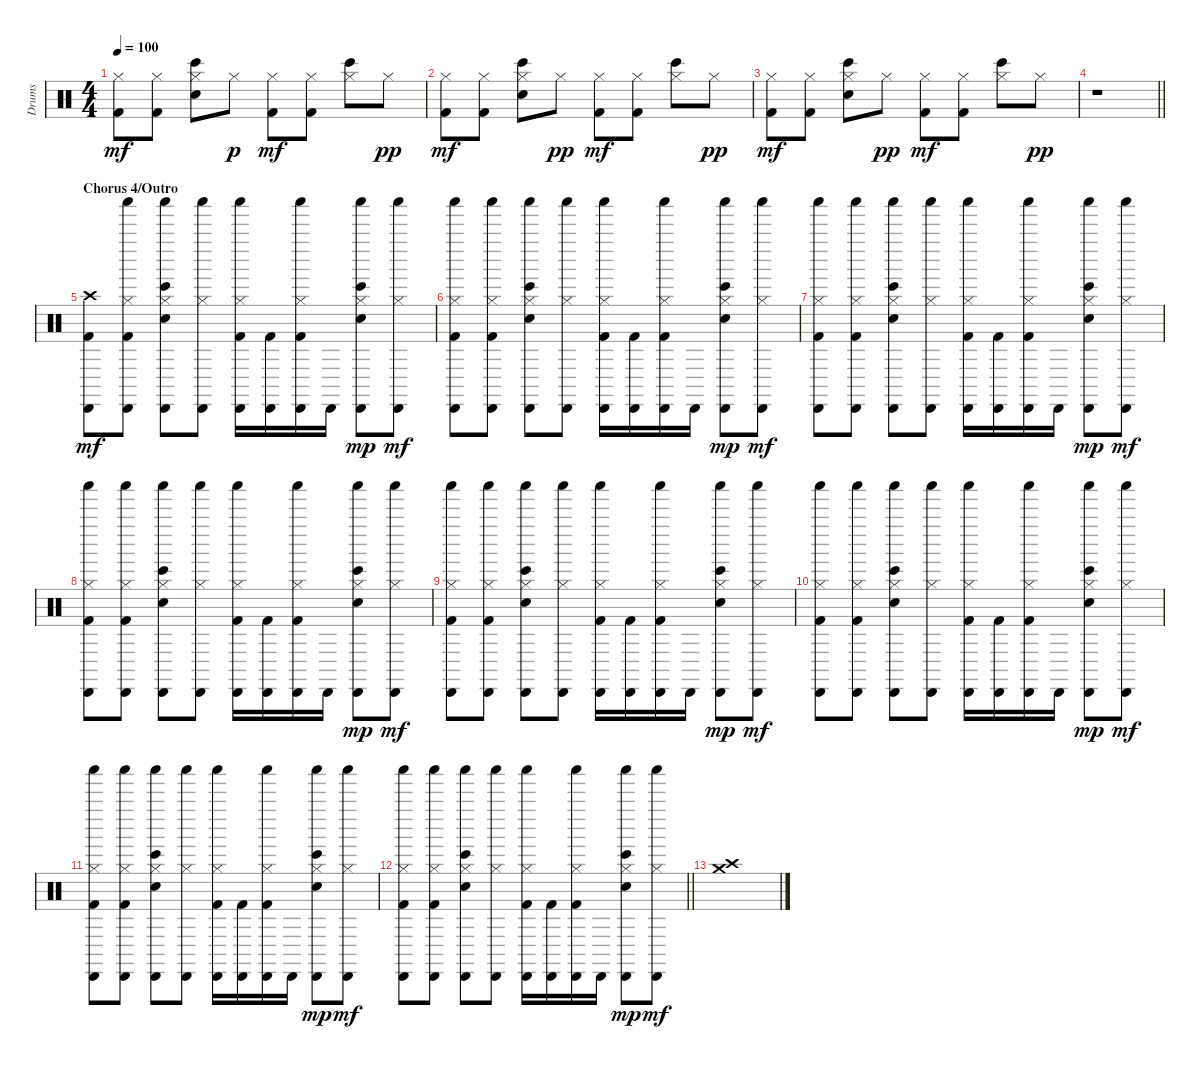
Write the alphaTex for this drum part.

\track ("Drums" "Drums") {instrument percussion}
\staff {score}
\articulation defaults
\ts (4 4)
\tempo 100
\clef neutral
\ks c
("Hi-Hat (closed)" "Kick (hit) 2").8{dy mf} ("Hi-Hat (closed)" "Kick (hit) 2").8 ("Hi-Hat (closed)" "Bongo High (hit)" "Snare (hit) 2").8 "Hi-Hat (closed)".8{dy p} ("Hi-Hat (closed)" "Kick (hit) 2").8{dy mf} ("Hi-Hat (closed)" "Kick (hit) 2").8 ("Hi-Hat (closed)" "Bongo High (hit)").8 "Hi-Hat (closed)".8{dy pp} |
("Hi-Hat (closed)" "Kick (hit) 2").8{dy mf} ("Hi-Hat (closed)" "Kick (hit) 2").8 ("Hi-Hat (closed)" "Bongo High (hit)" "Snare (hit) 2").8 "Hi-Hat (closed)".8{dy pp} ("Hi-Hat (closed)" "Kick (hit) 2").8{dy mf} ("Hi-Hat (closed)" "Kick (hit) 2").8 ("Hi-Hat (closed)" "Bongo High (hit)").8 "Hi-Hat (closed)".8{dy pp} |
("Hi-Hat (closed)" "Kick (hit) 2").8{dy mf} ("Hi-Hat (closed)" "Kick (hit) 2").8 ("Hi-Hat (closed)" "Bongo High (hit)" "Snare (hit) 2").8 "Hi-Hat (closed)".8{dy pp} ("Hi-Hat (closed)" "Kick (hit) 2").8{dy mf} ("Hi-Hat (closed)" "Kick (hit) 2").8 ("Hi-Hat (closed)" "Bongo High (hit)").8 "Hi-Hat (closed)".8{dy pp} |
\barLineRight lightlight
r.1 |
\section ("" "Chorus 4/Outro")
("Crash high (hit)" "Cabasa (hit)" "Kick (hit) 2").8{dy mf} ("Shaker (hit)" "Hi-Hat (closed)" "Cabasa (hit)" "Kick (hit) 2").8 ("Shaker (hit)" "Hi-Hat (closed)" "Cabasa (hit)" "Bongo High (hit)" "Snare (hit) 2").8 ("Shaker (hit)" "Hi-Hat (closed)" "Cabasa (hit)").8 ("Shaker (hit)" "Hi-Hat (closed)" "Cabasa (hit)" "Kick (hit) 2").16 ("Cabasa (hit)" "Kick (hit) 2").16 ("Shaker (hit)" "Hi-Hat (closed)" "Cabasa (hit)" "Kick (hit) 2").16 "Cabasa (hit)".16 ("Shaker (hit)" "Hi-Hat (closed)" "Cabasa (hit)" "Bongo High (hit)" "Snare (hit) 2").8{dy mp} ("Shaker (hit)" "Hi-Hat (closed)" "Cabasa (hit)").8{dy mf} |
("Shaker (hit)" "Hi-Hat (closed)" "Cabasa (hit)" "Kick (hit) 2").8 ("Shaker (hit)" "Hi-Hat (closed)" "Cabasa (hit)" "Kick (hit) 2").8 ("Shaker (hit)" "Hi-Hat (closed)" "Cabasa (hit)" "Bongo High (hit)" "Snare (hit) 2").8 ("Shaker (hit)" "Hi-Hat (closed)" "Cabasa (hit)").8 ("Shaker (hit)" "Hi-Hat (closed)" "Cabasa (hit)" "Kick (hit) 2").16 ("Cabasa (hit)" "Kick (hit) 2").16 ("Shaker (hit)" "Hi-Hat (closed)" "Cabasa (hit)" "Kick (hit) 2").16 "Cabasa (hit)".16 ("Shaker (hit)" "Hi-Hat (closed)" "Cabasa (hit)" "Bongo High (hit)" "Snare (hit) 2").8{dy mp} ("Shaker (hit)" "Hi-Hat (closed)" "Cabasa (hit)").8{dy mf} |
("Shaker (hit)" "Hi-Hat (closed)" "Cabasa (hit)" "Kick (hit) 2").8 ("Shaker (hit)" "Hi-Hat (closed)" "Cabasa (hit)" "Kick (hit) 2").8 ("Shaker (hit)" "Hi-Hat (closed)" "Cabasa (hit)" "Bongo High (hit)" "Snare (hit) 2").8 ("Shaker (hit)" "Hi-Hat (closed)" "Cabasa (hit)").8 ("Shaker (hit)" "Hi-Hat (closed)" "Cabasa (hit)" "Kick (hit) 2").16 ("Cabasa (hit)" "Kick (hit) 2").16 ("Shaker (hit)" "Hi-Hat (closed)" "Cabasa (hit)" "Kick (hit) 2").16 "Cabasa (hit)".16 ("Shaker (hit)" "Hi-Hat (closed)" "Cabasa (hit)" "Bongo High (hit)" "Snare (hit) 2").8{dy mp} ("Shaker (hit)" "Hi-Hat (closed)" "Cabasa (hit)").8{dy mf} |
("Shaker (hit)" "Hi-Hat (closed)" "Cabasa (hit)" "Kick (hit) 2").8 ("Shaker (hit)" "Hi-Hat (closed)" "Cabasa (hit)" "Kick (hit) 2").8 ("Shaker (hit)" "Hi-Hat (closed)" "Cabasa (hit)" "Bongo High (hit)" "Snare (hit) 2").8 ("Shaker (hit)" "Hi-Hat (closed)" "Cabasa (hit)").8 ("Shaker (hit)" "Hi-Hat (closed)" "Cabasa (hit)" "Kick (hit) 2").16 ("Cabasa (hit)" "Kick (hit) 2").16 ("Shaker (hit)" "Hi-Hat (closed)" "Cabasa (hit)" "Kick (hit) 2").16 "Cabasa (hit)".16 ("Shaker (hit)" "Hi-Hat (closed)" "Cabasa (hit)" "Bongo High (hit)" "Snare (hit) 2").8{dy mp} ("Shaker (hit)" "Hi-Hat (closed)" "Cabasa (hit)").8{dy mf} |
("Shaker (hit)" "Hi-Hat (closed)" "Cabasa (hit)" "Kick (hit) 2").8 ("Shaker (hit)" "Hi-Hat (closed)" "Cabasa (hit)" "Kick (hit) 2").8 ("Shaker (hit)" "Hi-Hat (closed)" "Cabasa (hit)" "Bongo High (hit)" "Snare (hit) 2").8 ("Shaker (hit)" "Hi-Hat (closed)" "Cabasa (hit)").8 ("Shaker (hit)" "Hi-Hat (closed)" "Cabasa (hit)" "Kick (hit) 2").16 ("Cabasa (hit)" "Kick (hit) 2").16 ("Shaker (hit)" "Hi-Hat (closed)" "Cabasa (hit)" "Kick (hit) 2").16 "Cabasa (hit)".16 ("Shaker (hit)" "Hi-Hat (closed)" "Cabasa (hit)" "Bongo High (hit)" "Snare (hit) 2").8{dy mp} ("Shaker (hit)" "Hi-Hat (closed)" "Cabasa (hit)").8{dy mf} |
("Shaker (hit)" "Hi-Hat (closed)" "Cabasa (hit)" "Kick (hit) 2").8 ("Shaker (hit)" "Hi-Hat (closed)" "Cabasa (hit)" "Kick (hit) 2").8 ("Shaker (hit)" "Hi-Hat (closed)" "Cabasa (hit)" "Bongo High (hit)" "Snare (hit) 2").8 ("Shaker (hit)" "Hi-Hat (closed)" "Cabasa (hit)").8 ("Shaker (hit)" "Hi-Hat (closed)" "Cabasa (hit)" "Kick (hit) 2").16 ("Cabasa (hit)" "Kick (hit) 2").16 ("Shaker (hit)" "Hi-Hat (closed)" "Cabasa (hit)" "Kick (hit) 2").16 "Cabasa (hit)".16 ("Shaker (hit)" "Hi-Hat (closed)" "Cabasa (hit)" "Bongo High (hit)" "Snare (hit) 2").8{dy mp} ("Shaker (hit)" "Hi-Hat (closed)" "Cabasa (hit)").8{dy mf} |
("Shaker (hit)" "Hi-Hat (closed)" "Cabasa (hit)" "Kick (hit) 2").8 ("Shaker (hit)" "Hi-Hat (closed)" "Cabasa (hit)" "Kick (hit) 2").8 ("Shaker (hit)" "Hi-Hat (closed)" "Cabasa (hit)" "Bongo High (hit)" "Snare (hit) 2").8 ("Shaker (hit)" "Hi-Hat (closed)" "Cabasa (hit)").8 ("Shaker (hit)" "Hi-Hat (closed)" "Cabasa (hit)" "Kick (hit) 2").16 ("Cabasa (hit)" "Kick (hit) 2").16 ("Shaker (hit)" "Hi-Hat (closed)" "Cabasa (hit)" "Kick (hit) 2").16 "Cabasa (hit)".16 ("Shaker (hit)" "Hi-Hat (closed)" "Cabasa (hit)" "Bongo High (hit)" "Snare (hit) 2").8{dy mp} ("Shaker (hit)" "Hi-Hat (closed)" "Cabasa (hit)").8{dy mf} |
\barLineRight lightlight
("Shaker (hit)" "Hi-Hat (closed)" "Cabasa (hit)" "Kick (hit) 2").8 ("Shaker (hit)" "Hi-Hat (closed)" "Cabasa (hit)" "Kick (hit) 2").8 ("Shaker (hit)" "Hi-Hat (closed)" "Cabasa (hit)" "Bongo High (hit)" "Snare (hit) 2").8 ("Shaker (hit)" "Hi-Hat (closed)" "Cabasa (hit)").8 ("Shaker (hit)" "Hi-Hat (closed)" "Cabasa (hit)" "Kick (hit) 2").16 ("Cabasa (hit)" "Kick (hit) 2").16 ("Shaker (hit)" "Hi-Hat (closed)" "Cabasa (hit)" "Kick (hit) 2").16 "Cabasa (hit)".16 ("Shaker (hit)" "Hi-Hat (closed)" "Cabasa (hit)" "Bongo High (hit)" "Snare (hit) 2").8{dy mp} ("Shaker (hit)" "Hi-Hat (closed)" "Cabasa (hit)").8{dy mf} |
("Crash high (hit)" "Crash medium (hit)").1
